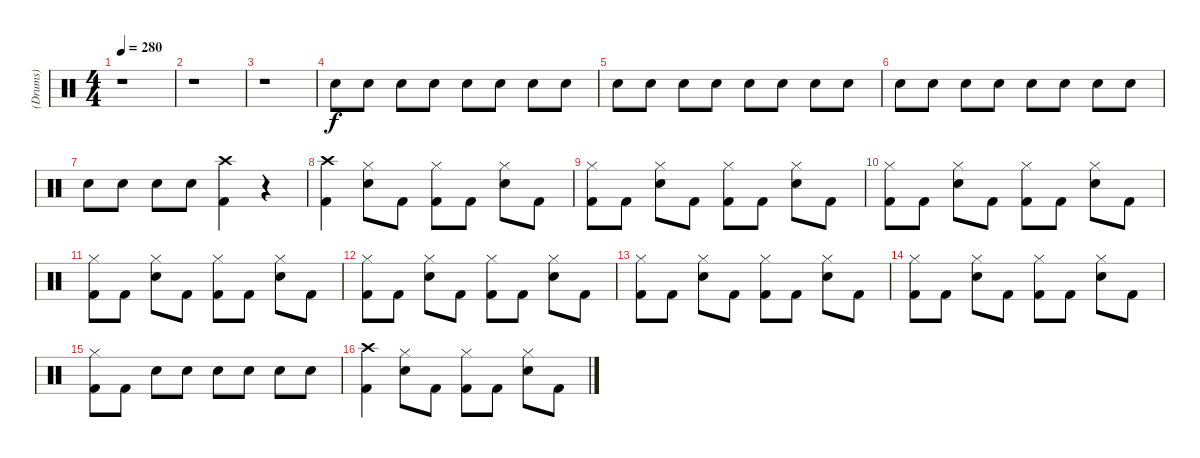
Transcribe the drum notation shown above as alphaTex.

\track ("(Drums)" "(Drums)") {instrument percussion}
\staff {score}
\articulation defaults
\ts (4 4)
\tempo 280
\clef neutral
\ks c
r.1{dy f} |
r.1 |
r.1 |
"Snare (hit) 2".8 "Snare (hit) 2".8 "Snare (hit) 2".8 "Snare (hit) 2".8 "Snare (hit) 2".8 "Snare (hit) 2".8 "Snare (hit) 2".8 "Snare (hit) 2".8 |
"Snare (hit) 2".8 "Snare (hit) 2".8 "Snare (hit) 2".8 "Snare (hit) 2".8 "Snare (hit) 2".8 "Snare (hit) 2".8 "Snare (hit) 2".8 "Snare (hit) 2".8 |
"Snare (hit) 2".8 "Snare (hit) 2".8 "Snare (hit) 2".8 "Snare (hit) 2".8 "Snare (hit) 2".8 "Snare (hit) 2".8 "Snare (hit) 2".8 "Snare (hit) 2".8 |
"Snare (hit) 2".8 "Snare (hit) 2".8 "Snare (hit) 2".8 "Snare (hit) 2".8 ("Kick (hit) 2" "Crash high (hit)").4 r.4 |
("Kick (hit) 2" "Crash high (hit)").4 ("Hi-Hat (closed)" "Snare (hit) 2").8 "Kick (hit) 2".8 ("Hi-Hat (closed)" "Kick (hit) 2").8 "Kick (hit) 2".8 ("Hi-Hat (closed)" "Snare (hit) 2").8 "Kick (hit) 2".8 |
("Hi-Hat (closed)" "Kick (hit) 2").8 "Kick (hit) 2".8 ("Hi-Hat (closed)" "Snare (hit) 2").8 "Kick (hit) 2".8 ("Hi-Hat (closed)" "Kick (hit) 2").8 "Kick (hit) 2".8 ("Hi-Hat (closed)" "Snare (hit) 2").8 "Kick (hit) 2".8 |
("Hi-Hat (closed)" "Kick (hit) 2").8 "Kick (hit) 2".8 ("Hi-Hat (closed)" "Snare (hit) 2").8 "Kick (hit) 2".8 ("Hi-Hat (closed)" "Kick (hit) 2").8 "Kick (hit) 2".8 ("Hi-Hat (closed)" "Snare (hit) 2").8 "Kick (hit) 2".8 |
("Hi-Hat (closed)" "Kick (hit) 2").8 "Kick (hit) 2".8 ("Hi-Hat (closed)" "Snare (hit) 2").8 "Kick (hit) 2".8 ("Hi-Hat (closed)" "Kick (hit) 2").8 "Kick (hit) 2".8 ("Hi-Hat (closed)" "Snare (hit) 2").8 "Kick (hit) 2".8 |
("Hi-Hat (closed)" "Kick (hit) 2").8 "Kick (hit) 2".8 ("Hi-Hat (closed)" "Snare (hit) 2").8 "Kick (hit) 2".8 ("Hi-Hat (closed)" "Kick (hit) 2").8 "Kick (hit) 2".8 ("Hi-Hat (closed)" "Snare (hit) 2").8 "Kick (hit) 2".8 |
("Hi-Hat (closed)" "Kick (hit) 2").8 "Kick (hit) 2".8 ("Hi-Hat (closed)" "Snare (hit) 2").8 "Kick (hit) 2".8 ("Hi-Hat (closed)" "Kick (hit) 2").8 "Kick (hit) 2".8 ("Hi-Hat (closed)" "Snare (hit) 2").8 "Kick (hit) 2".8 |
("Hi-Hat (closed)" "Kick (hit) 2").8 "Kick (hit) 2".8 ("Hi-Hat (closed)" "Snare (hit) 2").8 "Kick (hit) 2".8 ("Hi-Hat (closed)" "Kick (hit) 2").8 "Kick (hit) 2".8 ("Hi-Hat (closed)" "Snare (hit) 2").8 "Kick (hit) 2".8 |
("Kick (hit) 2" "Hi-Hat (closed)").8 "Kick (hit) 2".8 "Snare (hit) 2".8 "Snare (hit) 2".8 "Snare (hit) 2".8 "Snare (hit) 2".8 "Snare (hit) 2".8 "Snare (hit) 2".8 |
("Kick (hit) 2" "Crash high (hit)").4 ("Hi-Hat (closed)" "Snare (hit) 2").8 "Kick (hit) 2".8 ("Hi-Hat (closed)" "Kick (hit) 2").8 "Kick (hit) 2".8 ("Hi-Hat (closed)" "Snare (hit) 2").8 "Kick (hit) 2".8
